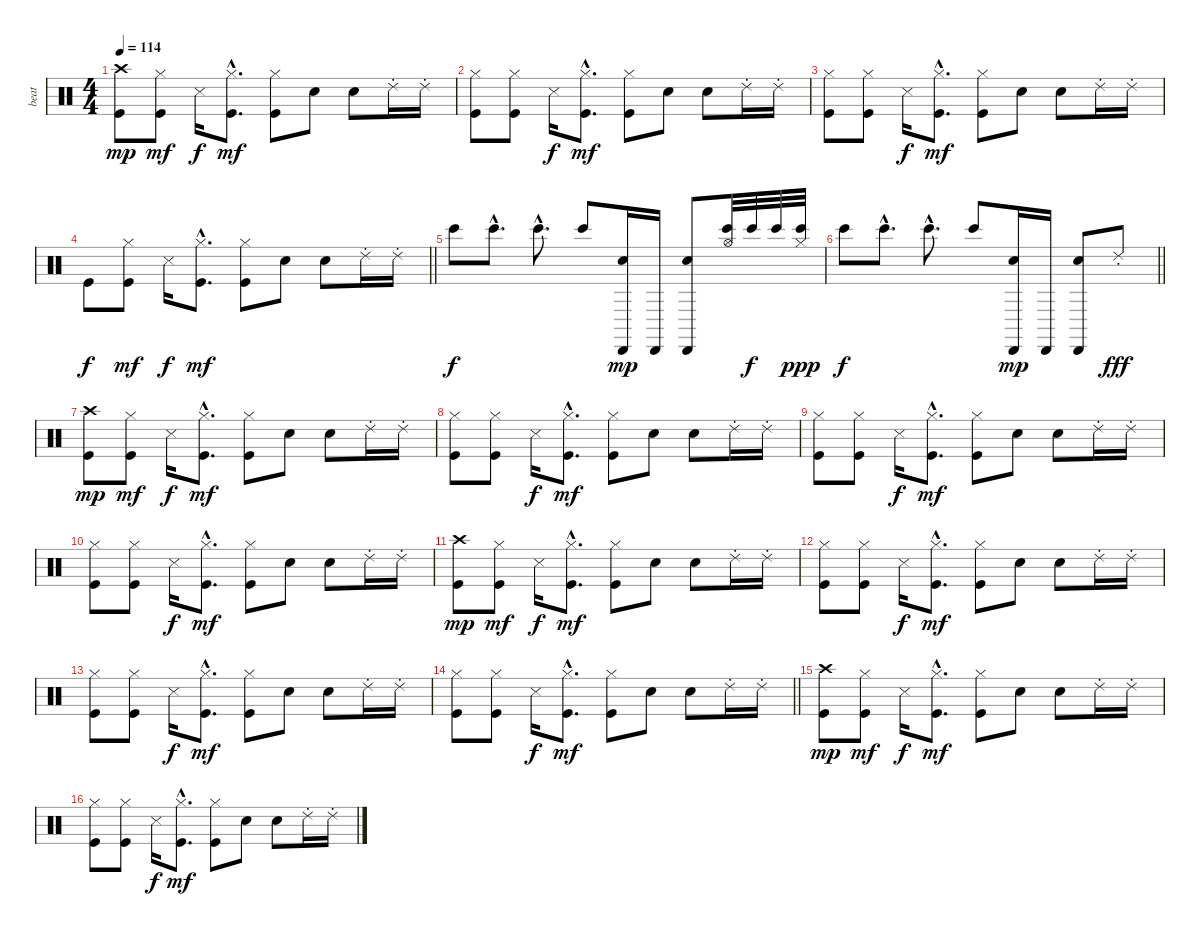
\track ("beat" "beat") {instrument percussion}
\staff {score}
\articulation defaults
\ts (4 4)
\tempo 114
\clef neutral
\ks c
("Kick (hit)" "Crash high (hit)").8{dy mp} ("Kick (hit)" "Hi-Hat (closed)").8{dy mf} "Snare (side stick) 3".16{dy f} ("Kick (hit)"{hac} "Hi-Hat (closed)"{hac}).8{d dy mf} ("Kick (hit)" "Hi-Hat (closed)").8 "Hand Clap (hit)".8 "Hand Clap (hit)".8 "Ride (choke) 2".16 "Ride (choke) 2".16 |
("Kick (hit)" "Hi-Hat (closed)").8 ("Kick (hit)" "Hi-Hat (closed)").8 "Snare (side stick) 3".16{dy f} ("Kick (hit)"{hac} "Hi-Hat (closed)"{hac}).8{d dy mf} ("Kick (hit)" "Hi-Hat (closed)").8 "Hand Clap (hit)".8 "Hand Clap (hit)".8 "Ride (choke) 2".16 "Ride (choke) 2".16 |
("Kick (hit)" "Hi-Hat (closed)").8 ("Kick (hit)" "Hi-Hat (closed)").8 "Snare (side stick) 3".16{dy f} ("Kick (hit)"{hac} "Hi-Hat (closed)"{hac}).8{d dy mf} ("Kick (hit)" "Hi-Hat (closed)").8 "Hand Clap (hit)".8 "Hand Clap (hit)".8 "Ride (choke) 2".16 "Ride (choke) 2".16 |
\barLineRight lightlight "Kick (hit)".8{dy f}
("Kick (hit)" "Hi-Hat (closed)").8{dy mf} "Snare (side stick) 3".16{dy f} ("Kick (hit)"{hac} "Hi-Hat (closed)"{hac}).8{d dy mf} ("Kick (hit)" "Hi-Hat (closed)").8 "Hand Clap (hit)".8 "Hand Clap (hit)".8 "Ride (choke) 2".16 "Ride (choke) 2".16 |
"Bongo High (hit)".8{dy f} "Bongo High (hit)"{hac}.8{d} "Bongo High (hit)"{hac}.8{d} "Bongo High (hit)".8 ("Cabasa (hit)" "Hand Clap (hit)").16{dy mp} "Cabasa (hit)".16 ("Cabasa (hit)" "Hand Clap (hit)").8 ("Hi-Hat (open)" "Bongo High (hit)").32 "Bongo High (hit)".32{dy f} "Bongo High (hit)".32 ("Hi-Hat (closed)" "Bongo High (hit)").32{dy ppp} |
\barLineRight lightlight "Bongo High (hit)".8{dy f} "Bongo High (hit)"{hac}.8{d} "Bongo High (hit)"{hac}.8{d} "Bongo High (hit)".8
("Cabasa (hit)" "Hand Clap (hit)").16{dy mp} "Cabasa (hit)".16 ("Cabasa (hit)" "Hand Clap (hit)").8 "Ride (choke) 2".8{dy fff} |
("Kick (hit)" "Crash high (hit)").8{dy mp} ("Kick (hit)" "Hi-Hat (closed)").8{dy mf} "Snare (side stick) 3".16{dy f} ("Kick (hit)"{hac} "Hi-Hat (closed)"{hac}).8{d dy mf} ("Kick (hit)" "Hi-Hat (closed)").8 "Hand Clap (hit)".8 "Hand Clap (hit)".8 "Ride (choke) 2".16 "Ride (choke) 2".16 |
("Kick (hit)" "Hi-Hat (closed)").8 ("Kick (hit)" "Hi-Hat (closed)").8 "Snare (side stick) 3".16{dy f} ("Kick (hit)"{hac} "Hi-Hat (closed)"{hac}).8{d dy mf} ("Kick (hit)" "Hi-Hat (closed)").8 "Hand Clap (hit)".8 "Hand Clap (hit)".8 "Ride (choke) 2".16 "Ride (choke) 2".16 |
("Kick (hit)" "Hi-Hat (closed)").8 ("Kick (hit)" "Hi-Hat (closed)").8 "Snare (side stick) 3".16{dy f} ("Kick (hit)"{hac} "Hi-Hat (closed)"{hac}).8{d dy mf} ("Kick (hit)" "Hi-Hat (closed)").8 "Hand Clap (hit)".8 "Hand Clap (hit)".8 "Ride (choke) 2".16 "Ride (choke) 2".16 |
("Kick (hit)" "Hi-Hat (closed)").8 ("Kick (hit)" "Hi-Hat (closed)").8 "Snare (side stick) 3".16{dy f} ("Kick (hit)"{hac} "Hi-Hat (closed)"{hac}).8{d dy mf} ("Kick (hit)" "Hi-Hat (closed)").8 "Hand Clap (hit)".8 "Hand Clap (hit)".8 "Ride (choke) 2".16 "Ride (choke) 2".16 |
("Kick (hit)" "Crash high (hit)").8{dy mp} ("Kick (hit)" "Hi-Hat (closed)").8{dy mf} "Snare (side stick) 3".16{dy f} ("Kick (hit)"{hac} "Hi-Hat (closed)"{hac}).8{d dy mf} ("Kick (hit)" "Hi-Hat (closed)").8 "Hand Clap (hit)".8 "Hand Clap (hit)".8 "Ride (choke) 2".16 "Ride (choke) 2".16 |
("Kick (hit)" "Hi-Hat (closed)").8 ("Kick (hit)" "Hi-Hat (closed)").8 "Snare (side stick) 3".16{dy f} ("Kick (hit)"{hac} "Hi-Hat (closed)"{hac}).8{d dy mf} ("Kick (hit)" "Hi-Hat (closed)").8 "Hand Clap (hit)".8 "Hand Clap (hit)".8 "Ride (choke) 2".16 "Ride (choke) 2".16 |
("Kick (hit)" "Hi-Hat (closed)").8 ("Kick (hit)" "Hi-Hat (closed)").8 "Snare (side stick) 3".16{dy f} ("Kick (hit)"{hac} "Hi-Hat (closed)"{hac}).8{d dy mf} ("Kick (hit)" "Hi-Hat (closed)").8 "Hand Clap (hit)".8 "Hand Clap (hit)".8 "Ride (choke) 2".16 "Ride (choke) 2".16 |
\barLineRight lightlight
("Kick (hit)" "Hi-Hat (closed)").8 ("Kick (hit)" "Hi-Hat (closed)").8 "Snare (side stick) 3".16{dy f} ("Kick (hit)"{hac} "Hi-Hat (closed)"{hac}).8{d dy mf} ("Kick (hit)" "Hi-Hat (closed)").8 "Hand Clap (hit)".8 "Hand Clap (hit)".8 "Ride (choke) 2".16 "Ride (choke) 2".16 |
("Kick (hit)" "Crash high (hit)").8{dy mp} ("Kick (hit)" "Hi-Hat (closed)").8{dy mf} "Snare (side stick) 3".16{dy f} ("Kick (hit)"{hac} "Hi-Hat (closed)"{hac}).8{d dy mf} ("Kick (hit)" "Hi-Hat (closed)").8 "Hand Clap (hit)".8 "Hand Clap (hit)".8 "Ride (choke) 2".16 "Ride (choke) 2".16 |
("Kick (hit)" "Hi-Hat (closed)").8 ("Kick (hit)" "Hi-Hat (closed)").8 "Snare (side stick) 3".16{dy f} ("Kick (hit)"{hac} "Hi-Hat (closed)"{hac}).8{d dy mf} ("Kick (hit)" "Hi-Hat (closed)").8 "Hand Clap (hit)".8 "Hand Clap (hit)".8 "Ride (choke) 2".16 "Ride (choke) 2".16
